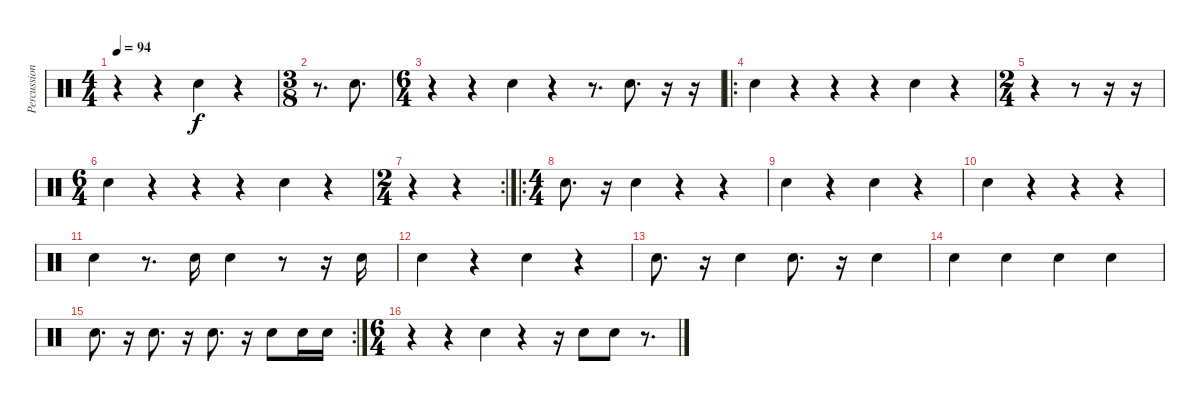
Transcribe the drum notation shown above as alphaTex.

\track ("Percussion" "Percussion") {instrument percussion}
\staff {score}
\articulation defaults
\ts (4 4)
\tempo 94
\clef neutral
\ks c
r.4{dy f} r.4 "Electric Snare (hit)".4 r.4 |
\ts (3 8)
r.8{d} "Electric Snare (hit)".8{d} |
\ts (6 4)
r.4 r.4 "Electric Snare (hit)".4 r.4 r.8{d} "Electric Snare (hit)".8{d} r.16 r.16 |
\ro "Electric Snare (hit)".4
r.4 r.4 r.4 "Electric Snare (hit)".4 r.4 |
\ts (2 4)
r.4 r.8 r.16 r.16 |
\ts (6 4)
"Electric Snare (hit)".4 r.4 r.4 r.4 "Electric Snare (hit)".4 r.4 |
\rc 2
\ts (2 4)
r.4 r.4 |
\ro
\ts (4 4)
"Electric Snare (hit)".8{d} r.16 "Electric Snare (hit)".4 r.4 r.4 |
"Electric Snare (hit)".4 r.4 "Electric Snare (hit)".4 r.4 |
"Electric Snare (hit)".4 r.4 r.4 r.4 |
"Electric Snare (hit)".4 r.8{d} "Electric Snare (hit)".16 "Electric Snare (hit)".4 r.8 r.16 "Electric Snare (hit)".16 |
"Electric Snare (hit)".4 r.4 "Electric Snare (hit)".4 r.4 |
"Electric Snare (hit)".8{d} r.16 "Electric Snare (hit)".4 "Electric Snare (hit)".8{d} r.16 "Electric Snare (hit)".4 |
"Electric Snare (hit)".4 "Electric Snare (hit)".4 "Electric Snare (hit)".4 "Electric Snare (hit)".4 |
\rc 2 "Electric Snare (hit)".8{d}
r.16 "Electric Snare (hit)".8{d} r.16 "Electric Snare (hit)".8{d} r.16 "Electric Snare (hit)".8 "Electric Snare (hit)".16 "Electric Snare (hit)".16 |
\ts (6 4)
r.4 r.4 "Electric Snare (hit)".4 r.4 r.16 "Electric Snare (hit)".8 "Electric Snare (hit)".8 r.8{d}
